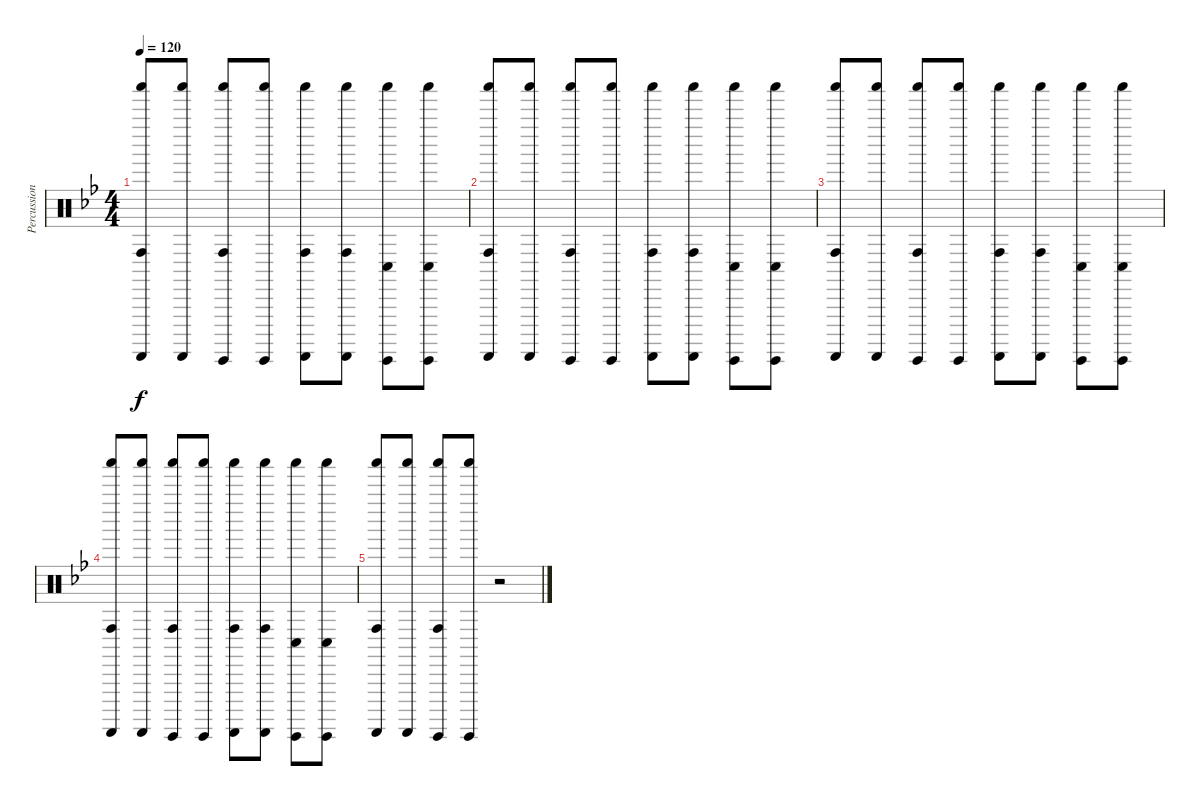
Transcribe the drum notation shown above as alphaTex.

\track ("Percussion" "Percussion") {instrument percussion}
\staff {score}
\articulation defaults
\ts (4 4)
\tempo 120
\clef neutral
\ks bb
("Shaker (hit)" "Guiro (scrap-return)" "Conga high (hit)").8{dy f} ("Shaker (hit)" "Guiro (scrap-return)").8 ("Shaker (hit)" "Guiro (hit)" "Conga high (hit)").8 ("Shaker (hit)" "Guiro (hit)").8 ("Shaker (hit)" "Guiro (scrap-return)" "Conga high (hit)").8 ("Shaker (hit)" "Guiro (scrap-return)" "Conga high (hit)").8 ("Shaker (hit)" "Guiro (hit)" "Conga low (hit)").8 ("Shaker (hit)" "Guiro (hit)" "Conga low (hit)").8 |
("Shaker (hit)" "Guiro (scrap-return)" "Conga high (hit)").8 ("Shaker (hit)" "Guiro (scrap-return)").8 ("Shaker (hit)" "Guiro (hit)" "Conga high (hit)").8 ("Shaker (hit)" "Guiro (hit)").8 ("Shaker (hit)" "Guiro (scrap-return)" "Conga high (hit)").8 ("Shaker (hit)" "Guiro (scrap-return)" "Conga high (hit)").8 ("Shaker (hit)" "Guiro (hit)" "Conga low (hit)").8 ("Shaker (hit)" "Guiro (hit)" "Conga low (hit)").8 |
("Shaker (hit)" "Guiro (scrap-return)" "Conga high (hit)").8 ("Shaker (hit)" "Guiro (scrap-return)").8 ("Shaker (hit)" "Guiro (hit)" "Conga high (hit)").8 ("Shaker (hit)" "Guiro (hit)").8 ("Shaker (hit)" "Guiro (scrap-return)" "Conga high (hit)").8 ("Shaker (hit)" "Guiro (scrap-return)" "Conga high (hit)").8 ("Shaker (hit)" "Guiro (hit)" "Conga low (hit)").8 ("Shaker (hit)" "Guiro (hit)" "Conga low (hit)").8 |
("Shaker (hit)" "Guiro (scrap-return)" "Conga high (hit)").8 ("Shaker (hit)" "Guiro (scrap-return)").8 ("Shaker (hit)" "Guiro (hit)" "Conga high (hit)").8 ("Shaker (hit)" "Guiro (hit)").8 ("Shaker (hit)" "Guiro (scrap-return)" "Conga high (hit)").8 ("Shaker (hit)" "Guiro (scrap-return)" "Conga high (hit)").8 ("Shaker (hit)" "Guiro (hit)" "Conga low (hit)").8 ("Shaker (hit)" "Guiro (hit)" "Conga low (hit)").8 |
("Shaker (hit)" "Guiro (scrap-return)" "Conga high (hit)").8 ("Shaker (hit)" "Guiro (scrap-return)").8 ("Shaker (hit)" "Guiro (hit)" "Conga high (hit)").8 ("Shaker (hit)" "Guiro (hit)").8 r.2
